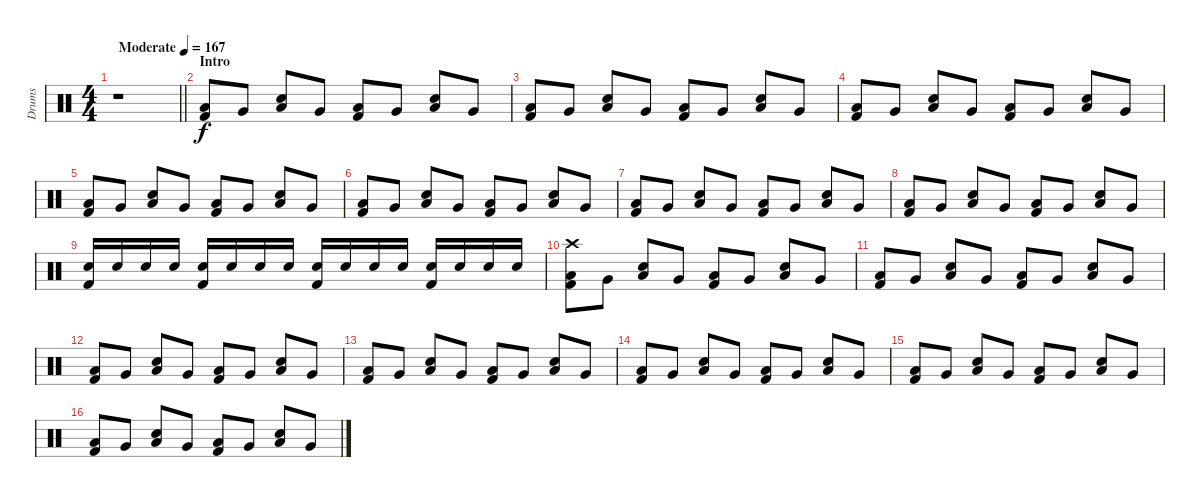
\track ("Drums" "Drums") {instrument percussion}
\staff {score}
\articulation defaults
\ts (4 4)
\tempo (167 "Moderate")
\clef neutral
\barLineRight lightlight
\ks c
r.1{dy f} |
\section ("" "Intro")
("Low Floor Tom (hit)" "Kick (hit) 2").8 "Very Low Tom (hit)".8 ("Low Floor Tom (hit)" "Snare (hit) 2").8 "Very Low Tom (hit)".8 ("Low Floor Tom (hit)" "Kick (hit) 2").8 "Very Low Tom (hit)".8 ("Low Floor Tom (hit)" "Snare (hit) 2").8 "Very Low Tom (hit)".8 |
("Low Floor Tom (hit)" "Kick (hit) 2").8 "Very Low Tom (hit)".8 ("Low Floor Tom (hit)" "Snare (hit) 2").8 "Very Low Tom (hit)".8 ("Low Floor Tom (hit)" "Kick (hit) 2").8 "Very Low Tom (hit)".8 ("Low Floor Tom (hit)" "Snare (hit) 2").8 "Very Low Tom (hit)".8 |
("Low Floor Tom (hit)" "Kick (hit) 2").8 "Very Low Tom (hit)".8 ("Low Floor Tom (hit)" "Snare (hit) 2").8 "Very Low Tom (hit)".8 ("Low Floor Tom (hit)" "Kick (hit) 2").8 "Very Low Tom (hit)".8 ("Low Floor Tom (hit)" "Snare (hit) 2").8 "Very Low Tom (hit)".8 |
("Low Floor Tom (hit)" "Kick (hit) 2").8 "Very Low Tom (hit)".8 ("Low Floor Tom (hit)" "Snare (hit) 2").8 "Very Low Tom (hit)".8 ("Low Floor Tom (hit)" "Kick (hit) 2").8 "Very Low Tom (hit)".8 ("Low Floor Tom (hit)" "Snare (hit) 2").8 "Very Low Tom (hit)".8 |
("Low Floor Tom (hit)" "Kick (hit) 2").8 "Very Low Tom (hit)".8 ("Low Floor Tom (hit)" "Snare (hit) 2").8 "Very Low Tom (hit)".8 ("Low Floor Tom (hit)" "Kick (hit) 2").8 "Very Low Tom (hit)".8 ("Low Floor Tom (hit)" "Snare (hit) 2").8 "Very Low Tom (hit)".8 |
("Low Floor Tom (hit)" "Kick (hit) 2").8 "Very Low Tom (hit)".8 ("Low Floor Tom (hit)" "Snare (hit) 2").8 "Very Low Tom (hit)".8 ("Low Floor Tom (hit)" "Kick (hit) 2").8 "Very Low Tom (hit)".8 ("Low Floor Tom (hit)" "Snare (hit) 2").8 "Very Low Tom (hit)".8 |
("Low Floor Tom (hit)" "Kick (hit) 2").8 "Very Low Tom (hit)".8 ("Low Floor Tom (hit)" "Snare (hit) 2").8 "Very Low Tom (hit)".8 ("Low Floor Tom (hit)" "Kick (hit) 2").8 "Very Low Tom (hit)".8 ("Low Floor Tom (hit)" "Snare (hit) 2").8 "Very Low Tom (hit)".8 |
("Snare (hit) 2" "Kick (hit) 2").16 "Snare (hit) 2".16 "Snare (hit) 2".16 "Snare (hit) 2".16 ("Snare (hit) 2" "Kick (hit) 2").16 "Snare (hit) 2".16 "Snare (hit) 2".16 "Snare (hit) 2".16 ("Snare (hit) 2" "Kick (hit) 2").16 "Snare (hit) 2".16 "Snare (hit) 2".16 "Snare (hit) 2".16 ("Snare (hit) 2" "Kick (hit) 2").16 "Snare (hit) 2".16 "Snare (hit) 2".16 "Snare (hit) 2".16 |
("Crash high (hit)" "Low Floor Tom (hit)" "Kick (hit) 2").8 "Very Low Tom (hit)".8 ("Low Floor Tom (hit)" "Snare (hit) 2").8 "Very Low Tom (hit)".8 ("Low Floor Tom (hit)" "Kick (hit) 2").8 "Very Low Tom (hit)".8 ("Low Floor Tom (hit)" "Snare (hit) 2").8 "Very Low Tom (hit)".8 |
("Low Floor Tom (hit)" "Kick (hit) 2").8 "Very Low Tom (hit)".8 ("Low Floor Tom (hit)" "Snare (hit) 2").8 "Very Low Tom (hit)".8 ("Low Floor Tom (hit)" "Kick (hit) 2").8 "Very Low Tom (hit)".8 ("Low Floor Tom (hit)" "Snare (hit) 2").8 "Very Low Tom (hit)".8 |
("Low Floor Tom (hit)" "Kick (hit) 2").8 "Very Low Tom (hit)".8 ("Low Floor Tom (hit)" "Snare (hit) 2").8 "Very Low Tom (hit)".8 ("Low Floor Tom (hit)" "Kick (hit) 2").8 "Very Low Tom (hit)".8 ("Low Floor Tom (hit)" "Snare (hit) 2").8 "Very Low Tom (hit)".8 |
("Low Floor Tom (hit)" "Kick (hit) 2").8 "Very Low Tom (hit)".8 ("Low Floor Tom (hit)" "Snare (hit) 2").8 "Very Low Tom (hit)".8 ("Low Floor Tom (hit)" "Kick (hit) 2").8 "Very Low Tom (hit)".8 ("Low Floor Tom (hit)" "Snare (hit) 2").8 "Very Low Tom (hit)".8 |
("Low Floor Tom (hit)" "Kick (hit) 2").8 "Very Low Tom (hit)".8 ("Low Floor Tom (hit)" "Snare (hit) 2").8 "Very Low Tom (hit)".8 ("Low Floor Tom (hit)" "Kick (hit) 2").8 "Very Low Tom (hit)".8 ("Low Floor Tom (hit)" "Snare (hit) 2").8 "Very Low Tom (hit)".8 |
("Low Floor Tom (hit)" "Kick (hit) 2").8 "Very Low Tom (hit)".8 ("Low Floor Tom (hit)" "Snare (hit) 2").8 "Very Low Tom (hit)".8 ("Low Floor Tom (hit)" "Kick (hit) 2").8 "Very Low Tom (hit)".8 ("Low Floor Tom (hit)" "Snare (hit) 2").8 "Very Low Tom (hit)".8 |
("Low Floor Tom (hit)" "Kick (hit) 2").8 "Very Low Tom (hit)".8 ("Low Floor Tom (hit)" "Snare (hit) 2").8 "Very Low Tom (hit)".8 ("Low Floor Tom (hit)" "Kick (hit) 2").8 "Very Low Tom (hit)".8 ("Low Floor Tom (hit)" "Snare (hit) 2").8 "Very Low Tom (hit)".8
